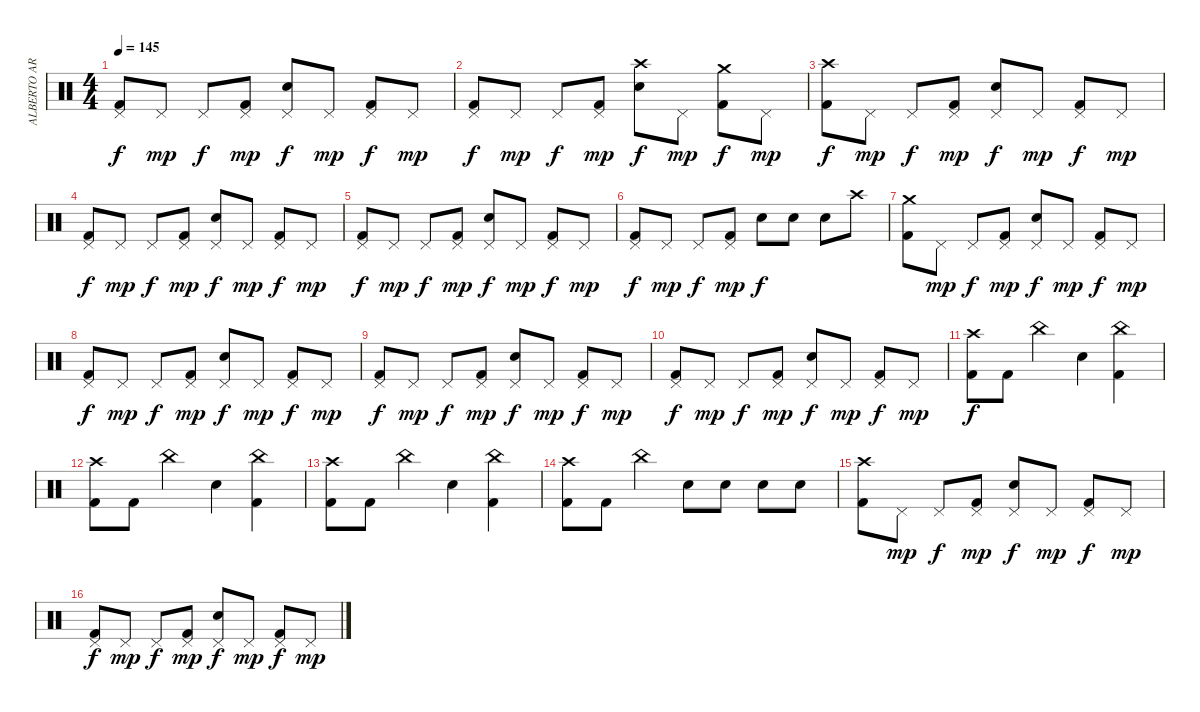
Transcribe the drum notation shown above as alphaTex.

\track ("ALBERTO ARDINES" "ALBERTO AR") {instrument percussion}
\staff {score}
\articulation defaults
\ts (4 4)
\tempo 145
\clef neutral
\ks c
("Pedal Hi-Hat (hit)" "Kick (hit) 2").8{dy f} "Pedal Hi-Hat (hit)".8{dy mp} "Pedal Hi-Hat (hit)".8{dy f} ("Pedal Hi-Hat (hit)" "Kick (hit) 2").8{dy mp} ("Pedal Hi-Hat (hit)" "Electric Snare (hit)").8{dy f} "Pedal Hi-Hat (hit)".8{dy mp} ("Pedal Hi-Hat (hit)" "Kick (hit) 2").8{dy f} "Pedal Hi-Hat (hit)".8{dy mp} |
("Pedal Hi-Hat (hit)" "Kick (hit) 2").8{dy f} "Pedal Hi-Hat (hit)".8{dy mp} "Pedal Hi-Hat (hit)".8{dy f} ("Pedal Hi-Hat (hit)" "Kick (hit) 2").8{dy mp} ("Crash high (hit)" "Electric Snare (hit)").8{dy f} "Pedal Hi-Hat (hit)".8{dy mp} ("Crash medium (hit)" "Kick (hit) 2").8{dy f} "Pedal Hi-Hat (hit)".8{dy mp} |
("Crash high (hit)" "Kick (hit) 2").8{dy f} "Pedal Hi-Hat (hit)".8{dy mp} "Pedal Hi-Hat (hit)".8{dy f} ("Pedal Hi-Hat (hit)" "Kick (hit) 2").8{dy mp} ("Pedal Hi-Hat (hit)" "Electric Snare (hit)").8{dy f} "Pedal Hi-Hat (hit)".8{dy mp} ("Pedal Hi-Hat (hit)" "Kick (hit) 2").8{dy f} "Pedal Hi-Hat (hit)".8{dy mp} |
("Pedal Hi-Hat (hit)" "Kick (hit) 2").8{dy f} "Pedal Hi-Hat (hit)".8{dy mp} "Pedal Hi-Hat (hit)".8{dy f} ("Pedal Hi-Hat (hit)" "Kick (hit) 2").8{dy mp} ("Pedal Hi-Hat (hit)" "Electric Snare (hit)").8{dy f} "Pedal Hi-Hat (hit)".8{dy mp} ("Pedal Hi-Hat (hit)" "Kick (hit) 2").8{dy f} "Pedal Hi-Hat (hit)".8{dy mp} |
("Pedal Hi-Hat (hit)" "Kick (hit) 2").8{dy f} "Pedal Hi-Hat (hit)".8{dy mp} "Pedal Hi-Hat (hit)".8{dy f} ("Pedal Hi-Hat (hit)" "Kick (hit) 2").8{dy mp} ("Pedal Hi-Hat (hit)" "Electric Snare (hit)").8{dy f} "Pedal Hi-Hat (hit)".8{dy mp} ("Pedal Hi-Hat (hit)" "Kick (hit) 2").8{dy f} "Pedal Hi-Hat (hit)".8{dy mp} |
("Pedal Hi-Hat (hit)" "Kick (hit) 2").8{dy f} "Pedal Hi-Hat (hit)".8{dy mp} "Pedal Hi-Hat (hit)".8{dy f} ("Pedal Hi-Hat (hit)" "Kick (hit) 2").8{dy mp} "Electric Snare (hit)".8{dy f} "Electric Snare (hit)".8 "Electric Snare (hit)".8 "Crash high (hit)".8 |
("Crash medium (hit)" "Kick (hit) 2").8 "Pedal Hi-Hat (hit)".8{dy mp} "Pedal Hi-Hat (hit)".8{dy f} ("Pedal Hi-Hat (hit)" "Kick (hit) 2").8{dy mp} ("Pedal Hi-Hat (hit)" "Electric Snare (hit)").8{dy f} "Pedal Hi-Hat (hit)".8{dy mp} ("Pedal Hi-Hat (hit)" "Kick (hit) 2").8{dy f} "Pedal Hi-Hat (hit)".8{dy mp} |
("Pedal Hi-Hat (hit)" "Kick (hit) 2").8{dy f} "Pedal Hi-Hat (hit)".8{dy mp} "Pedal Hi-Hat (hit)".8{dy f} ("Pedal Hi-Hat (hit)" "Kick (hit) 2").8{dy mp} ("Pedal Hi-Hat (hit)" "Electric Snare (hit)").8{dy f} "Pedal Hi-Hat (hit)".8{dy mp} ("Pedal Hi-Hat (hit)" "Kick (hit) 2").8{dy f} "Pedal Hi-Hat (hit)".8{dy mp} |
("Pedal Hi-Hat (hit)" "Kick (hit) 2").8{dy f} "Pedal Hi-Hat (hit)".8{dy mp} "Pedal Hi-Hat (hit)".8{dy f} ("Pedal Hi-Hat (hit)" "Kick (hit) 2").8{dy mp} ("Pedal Hi-Hat (hit)" "Electric Snare (hit)").8{dy f} "Pedal Hi-Hat (hit)".8{dy mp} ("Pedal Hi-Hat (hit)" "Kick (hit) 2").8{dy f} "Pedal Hi-Hat (hit)".8{dy mp} |
("Pedal Hi-Hat (hit)" "Kick (hit) 2").8{dy f} "Pedal Hi-Hat (hit)".8{dy mp} "Pedal Hi-Hat (hit)".8{dy f} ("Pedal Hi-Hat (hit)" "Kick (hit) 2").8{dy mp} ("Pedal Hi-Hat (hit)" "Electric Snare (hit)").8{dy f} "Pedal Hi-Hat (hit)".8{dy mp} ("Pedal Hi-Hat (hit)" "Kick (hit) 2").8{dy f} "Pedal Hi-Hat (hit)".8{dy mp} |
("Crash high (hit)" "Kick (hit) 2").8{dy f} "Kick (hit) 2".8 "China (hit)".4 "Electric Snare (hit)".4 ("China (hit)" "Kick (hit) 2").4 |
("Crash high (hit)" "Kick (hit) 2").8 "Kick (hit) 2".8 "China (hit)".4 "Electric Snare (hit)".4 ("China (hit)" "Kick (hit) 2").4 |
("Crash high (hit)" "Kick (hit) 2").8 "Kick (hit) 2".8 "China (hit)".4 "Electric Snare (hit)".4 ("China (hit)" "Kick (hit) 2").4 |
("Crash high (hit)" "Kick (hit) 2").8 "Kick (hit) 2".8 "China (hit)".4 "Electric Snare (hit)".8 "Electric Snare (hit)".8 "Electric Snare (hit)".8 "Electric Snare (hit)".8 |
("Crash high (hit)" "Kick (hit) 2").8 "Pedal Hi-Hat (hit)".8{dy mp} "Pedal Hi-Hat (hit)".8{dy f} ("Pedal Hi-Hat (hit)" "Kick (hit) 2").8{dy mp} ("Pedal Hi-Hat (hit)" "Electric Snare (hit)").8{dy f} "Pedal Hi-Hat (hit)".8{dy mp} ("Pedal Hi-Hat (hit)" "Kick (hit) 2").8{dy f} "Pedal Hi-Hat (hit)".8{dy mp} |
("Pedal Hi-Hat (hit)" "Kick (hit) 2").8{dy f} "Pedal Hi-Hat (hit)".8{dy mp} "Pedal Hi-Hat (hit)".8{dy f} ("Pedal Hi-Hat (hit)" "Kick (hit) 2").8{dy mp} ("Pedal Hi-Hat (hit)" "Electric Snare (hit)").8{dy f} "Pedal Hi-Hat (hit)".8{dy mp} ("Pedal Hi-Hat (hit)" "Kick (hit) 2").8{dy f} "Pedal Hi-Hat (hit)".8{dy mp}
